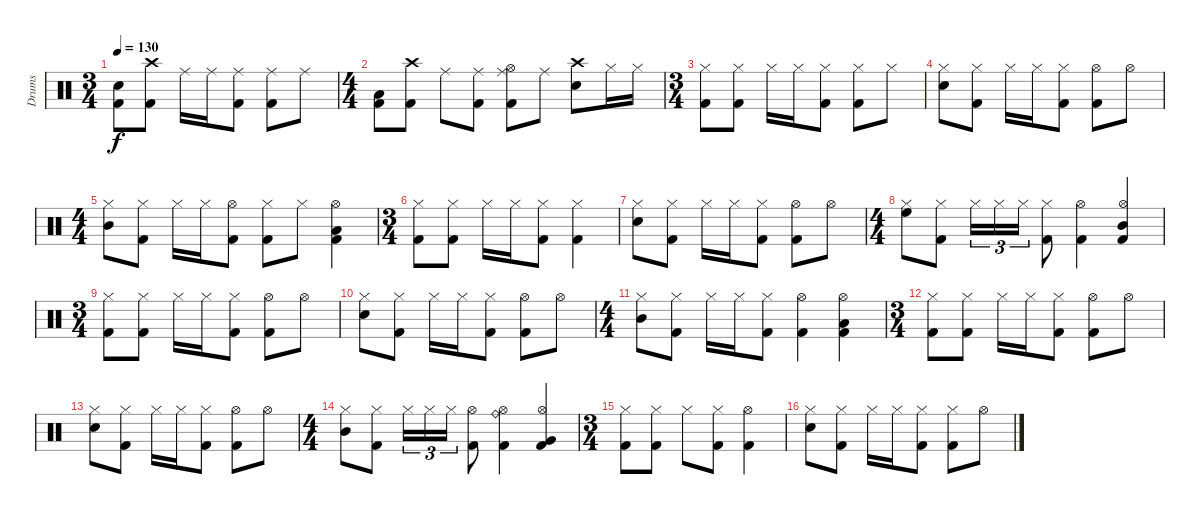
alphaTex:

\track ("Drums" "Drums") {instrument percussion}
\staff {score}
\articulation defaults
\ts (3 4)
\tempo 130
\clef neutral
\ks c
("Snare (hit) 2" "Kick (hit) 2").8{dy f} ("Crash high (hit)" "Kick (hit) 2").8 "Ride (middle)".16 "Ride (middle)".16 ("Ride (middle)" "Kick (hit) 2").8 ("Ride (middle)" "Kick (hit) 2").8 "Ride (middle)".8 |
\ts (4 4)
("Low Floor Tom (hit)" "Kick (hit) 2").8 ("Crash high (hit)" "Kick (hit) 2").8 "Ride (middle)".8 ("Ride (middle)" "Kick (hit) 2").8 ("Ride (middle)" "Hi-Hat (open)" "Kick (hit) 2").8 "Ride (middle)".8 ("Crash high (hit)" "Snare (hit) 2").8 "Hi-Hat (closed)".16 "Hi-Hat (closed)".16 |
\ts (3 4)
("Hi-Hat (closed)" "Kick (hit) 2").8 ("Hi-Hat (closed)" "Kick (hit) 2").8 "Hi-Hat (closed)".16 "Hi-Hat (closed)".16 ("Hi-Hat (closed)" "Kick (hit) 2").8 ("Hi-Hat (closed)" "Kick (hit) 2").8 "Hi-Hat (closed)".8 |
("Hi-Hat (closed)" "Snare (hit) 2").8 ("Hi-Hat (closed)" "Kick (hit) 2").8 "Hi-Hat (closed)".16 "Hi-Hat (closed)".16 ("Hi-Hat (closed)" "Kick (hit) 2").8 ("Hi-Hat (open)" "Kick (hit) 2").8 "Hi-Hat (open)".8 |
\ts (4 4)
("Hi-Hat (closed)" "Mid Tom (hit)").8 ("Hi-Hat (closed)" "Kick (hit) 2").8 "Hi-Hat (closed)".16 "Hi-Hat (closed)".16 ("Hi-Hat (open)" "Kick (hit) 2").8 ("Hi-Hat (closed)" "Kick (hit) 2").8 "Hi-Hat (closed)".8 ("Hi-Hat (open)" "Low Floor Tom (hit)" "Kick (hit) 2").4 |
\ts (3 4)
("Hi-Hat (closed)" "Kick (hit) 2").8 ("Hi-Hat (closed)" "Kick (hit) 2").8 "Hi-Hat (closed)".16 "Hi-Hat (closed)".16 ("Hi-Hat (closed)" "Kick (hit) 2").8 ("Hi-Hat (closed)" "Kick (hit) 2").4 |
("Hi-Hat (closed)" "Snare (hit) 2").8 ("Hi-Hat (closed)" "Kick (hit) 2").8 "Hi-Hat (closed)".16 "Hi-Hat (closed)".16 ("Hi-Hat (closed)" "Kick (hit) 2").8 ("Hi-Hat (open)" "Kick (hit) 2").8 "Hi-Hat (open)".8 |
\ts (4 4)
("Hi-Hat (closed)" "High Floor Tom (hit)").8 ("Hi-Hat (closed)" "Kick (hit) 2").8 "Hi-Hat (closed)".16{tu (3 2)} "Hi-Hat (closed)".16{tu (3 2)} "Hi-Hat (closed)".16{tu (3 2)} ("Hi-Hat (closed)" "Kick (hit) 2").8 ("Hi-Hat (open)" "Kick (hit) 2").4 ("Hi-Hat (open)" "Mid Tom (hit)" "Kick (hit) 2").4 |
\ts (3 4)
("Hi-Hat (closed)" "Kick (hit) 2").8 ("Hi-Hat (closed)" "Kick (hit) 2").8 "Hi-Hat (closed)".16 "Hi-Hat (closed)".16 ("Hi-Hat (closed)" "Kick (hit) 2").8 ("Hi-Hat (open)" "Kick (hit) 2").8 "Hi-Hat (open)".8 |
("Hi-Hat (closed)" "Snare (hit) 2").8 ("Hi-Hat (closed)" "Kick (hit) 2").8 "Hi-Hat (closed)".16 "Hi-Hat (closed)".16 ("Hi-Hat (closed)" "Kick (hit) 2").8 ("Hi-Hat (open)" "Kick (hit) 2").8 "Hi-Hat (open)".8 |
\ts (4 4)
("Hi-Hat (closed)" "Mid Tom (hit)").8 ("Hi-Hat (closed)" "Kick (hit) 2").8 "Hi-Hat (closed)".16 "Hi-Hat (closed)".16 ("Hi-Hat (closed)" "Kick (hit) 2").8 ("Hi-Hat (open)" "Kick (hit) 2").4 ("Hi-Hat (open)" "Low Floor Tom (hit)" "Kick (hit) 2").4 |
\ts (3 4)
("Hi-Hat (closed)" "Kick (hit) 2").8 ("Hi-Hat (closed)" "Kick (hit) 2").8 "Hi-Hat (closed)".16 "Hi-Hat (closed)".16 ("Hi-Hat (closed)" "Kick (hit) 2").8 ("Hi-Hat (open)" "Kick (hit) 2").8 "Hi-Hat (open)".8 |
("Hi-Hat (closed)" "Snare (hit) 2").8 ("Hi-Hat (closed)" "Kick (hit) 2").8 "Hi-Hat (closed)".16 "Hi-Hat (closed)".16 ("Hi-Hat (closed)" "Kick (hit) 2").8 ("Hi-Hat (open)" "Kick (hit) 2").8 "Hi-Hat (open)".8 |
\ts (4 4)
("Hi-Hat (closed)" "Mid Tom (hit)").8 ("Hi-Hat (closed)" "Kick (hit) 2").8 "Hi-Hat (closed)".16{tu (3 2)} "Hi-Hat (closed)".16{tu (3 2)} "Hi-Hat (closed)".16{tu (3 2)} ("Hi-Hat (open)" "Kick (hit) 2").8 ("Ride (bell)" "Hi-Hat (open)" "Kick (hit) 2").4 ("Hi-Hat (open)" "Very Low Tom (hit)" "Kick (hit) 2").4 |
\ts (3 4)
("Hi-Hat (closed)" "Kick (hit) 2").8 ("Hi-Hat (closed)" "Kick (hit) 2").8 "Hi-Hat (closed)".8 ("Hi-Hat (closed)" "Kick (hit) 2").8 ("Hi-Hat (open)" "Kick (hit) 2").4 |
("Hi-Hat (closed)" "Snare (hit) 2").8 ("Hi-Hat (closed)" "Kick (hit) 2").8 "Hi-Hat (closed)".16 "Hi-Hat (closed)".16 ("Hi-Hat (closed)" "Kick (hit) 2").8 ("Hi-Hat (closed)" "Kick (hit) 2").8 "Hi-Hat (open)".8
